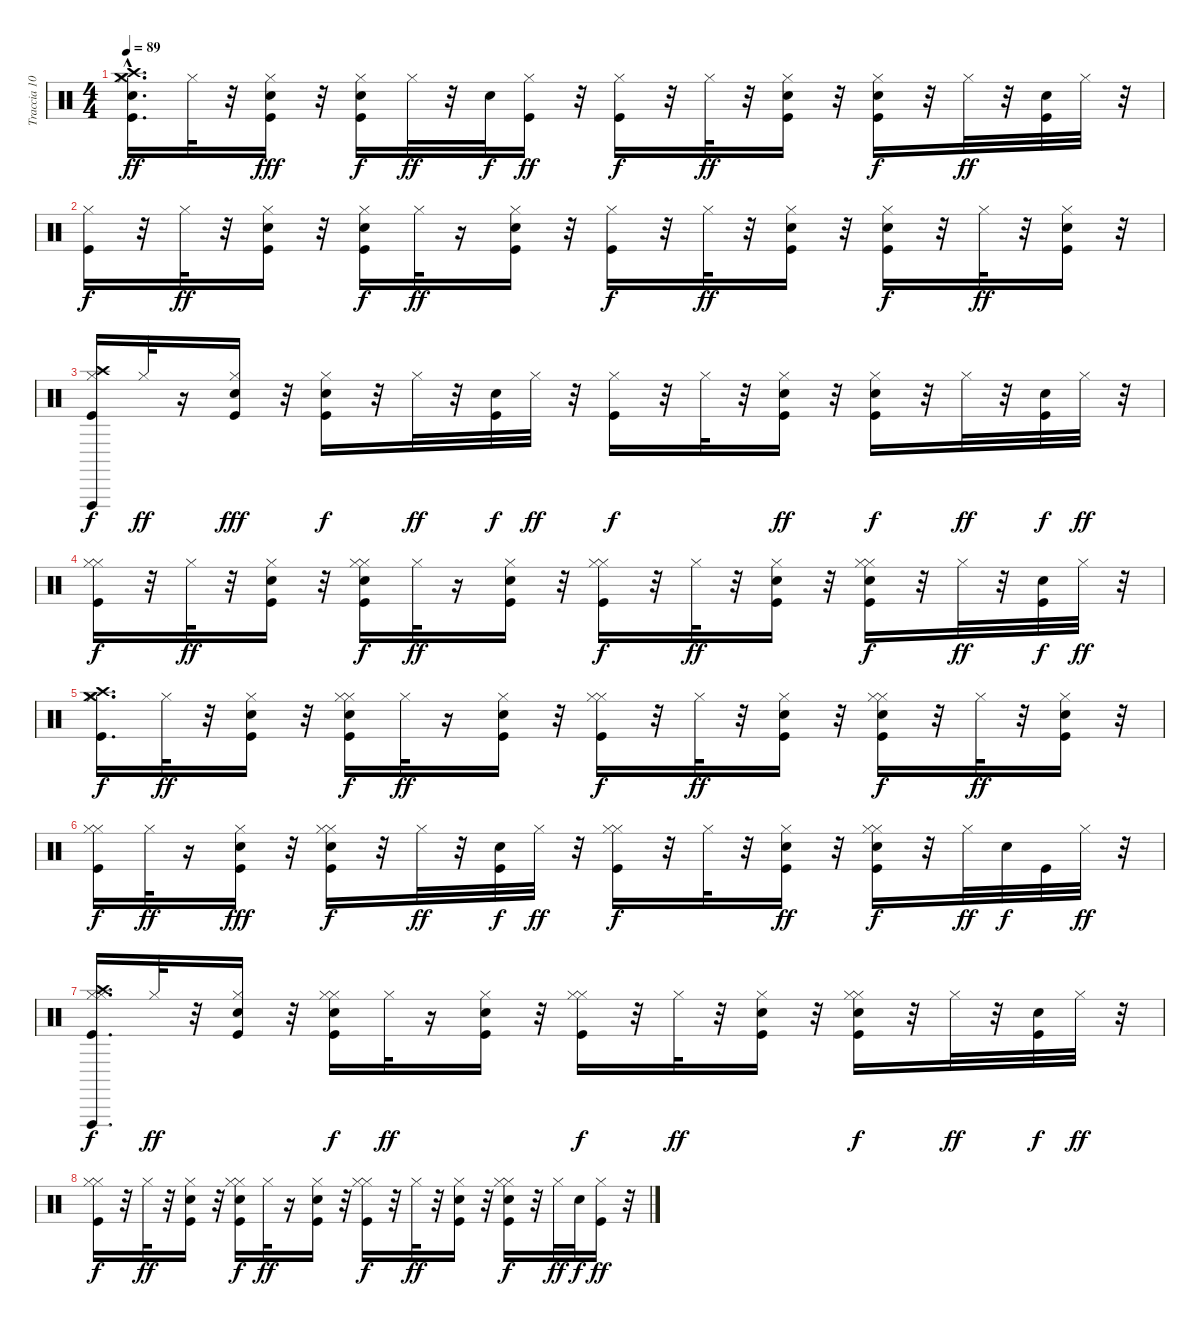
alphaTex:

\track ("Traccia 10" "Traccia 10") {instrument percussion}
\staff {score}
\articulation defaults
\ts (4 4)
\tempo 89
\clef neutral
\ks c
("Kick (hit)" "Crash medium (hit)" "Crash high (hit)" "Hi-Hat (closed)" "Snare (hit)"{hac}).16{d dy ff} "Hi-Hat (closed)".32 r.32 ("Kick (hit)" "Hi-Hat (closed)" "Snare (hit)").16{dy fff} r.32 ("Kick (hit)" "Electric Snare (hit)" "Hi-Hat (closed)").16{dy f} "Hi-Hat (closed)".32{dy ff} r.32 "Snare (hit)".32{dy f} ("Kick (hit)" "Hi-Hat (closed)").16{dy ff} r.32 ("Kick (hit)" "Hi-Hat (closed)").16{dy f} r.32 "Hi-Hat (closed)".32{dy ff} r.32 ("Kick (hit)" "Snare (hit)" "Hi-Hat (closed)").16 r.32 ("Kick (hit)" "Electric Snare (hit)" "Hi-Hat (closed)").16{dy f} r.32 "Hi-Hat (closed)".32{dy ff} r.32 ("Kick (hit)" "Snare (hit)").32 "Hi-Hat (closed)".32 r.32 |
("Kick (hit)" "Hi-Hat (closed)").16{dy f} r.32 "Hi-Hat (closed)".32{dy ff} r.32 ("Kick (hit)" "Snare (hit)" "Hi-Hat (closed)").16 r.32 ("Kick (hit)" "Electric Snare (hit)" "Hi-Hat (closed)").16{dy f} "Hi-Hat (closed)".32{dy ff} r.16 ("Kick (hit)" "Hi-Hat (closed)" "Snare (hit)").16 r.32 ("Kick (hit)" "Hi-Hat (closed)").16{dy f} r.32 "Hi-Hat (closed)".32{dy ff} r.32 ("Snare (hit)" "Kick (hit)" "Hi-Hat (closed)").16 r.32 ("Kick (hit)" "Electric Snare (hit)" "Hi-Hat (closed)").16{dy f} r.32 "Hi-Hat (closed)".32{dy ff} r.32 ("Kick (hit)" "Snare (hit)" "Hi-Hat (closed)").16 r.32 |
("Kick (hit)" "Hi-Hat (closed)" "Crash high (hit)" "Vibraslap (hit)").16{dy f} "Hi-Hat (closed)".32{dy ff} r.16 ("Kick (hit)" "Snare (hit)" "Hi-Hat (closed)").16{dy fff} r.32 ("Kick (hit)" "Electric Snare (hit)" "Hi-Hat (closed)").16{dy f} r.32 "Hi-Hat (closed)".32{dy ff} r.32 ("Kick (hit)" "Snare (hit)").32{dy f} "Hi-Hat (closed)".32{dy ff} r.32 ("Kick (hit)" "Hi-Hat (closed)").16{dy f} r.32 "Hi-Hat (closed)".32 r.32 ("Kick (hit)" "Snare (hit)" "Hi-Hat (closed)").16{dy ff} r.32 ("Kick (hit)" "Electric Snare (hit)" "Hi-Hat (closed)").16{dy f} r.32 "Hi-Hat (closed)".32{dy ff} r.32 ("Kick (hit)" "Snare (hit)").32{dy f} "Hi-Hat (closed)".32{dy ff} r.32 |
("Kick (hit)" "Hi-Hat (closed)" "Hi-Hat (closed)").16{dy f} r.32 "Hi-Hat (closed)".32{dy ff} r.32 ("Snare (hit)" "Kick (hit)" "Hi-Hat (closed)").16 r.32 ("Kick (hit)" "Electric Snare (hit)" "Hi-Hat (closed)" "Hi-Hat (closed)").16{dy f} "Hi-Hat (closed)".32{dy ff} r.16 ("Snare (hit)" "Kick (hit)" "Hi-Hat (closed)").16 r.32 ("Kick (hit)" "Hi-Hat (closed)" "Hi-Hat (closed)").16{dy f} r.32 "Hi-Hat (closed)".32{dy ff} r.32 ("Snare (hit)" "Kick (hit)" "Hi-Hat (closed)").16 r.32 ("Kick (hit)" "Electric Snare (hit)" "Hi-Hat (closed)" "Hi-Hat (closed)").16{dy f} r.32 "Hi-Hat (closed)".32{dy ff} r.32 ("Kick (hit)" "Snare (hit)").32{dy f} "Hi-Hat (closed)".32{dy ff} r.32 |
("Kick (hit)" "Crash high (hit)" "Crash medium (hit)" "Hi-Hat (closed)" "Hi-Hat (closed)").16{d dy f} "Hi-Hat (closed)".32{dy ff} r.32 ("Kick (hit)" "Snare (hit)" "Hi-Hat (closed)").16 r.32 ("Kick (hit)" "Electric Snare (hit)" "Hi-Hat (closed)" "Hi-Hat (closed)").16{dy f} "Hi-Hat (closed)".32{dy ff} r.16 ("Kick (hit)" "Hi-Hat (closed)" "Snare (hit)").16 r.32 ("Kick (hit)" "Hi-Hat (closed)" "Hi-Hat (closed)").16{dy f} r.32 "Hi-Hat (closed)".32{dy ff} r.32 ("Kick (hit)" "Snare (hit)" "Hi-Hat (closed)").16 r.32 ("Kick (hit)" "Electric Snare (hit)" "Hi-Hat (closed)" "Hi-Hat (closed)").16{dy f} r.32 "Hi-Hat (closed)".32{dy ff} r.32 ("Kick (hit)" "Snare (hit)" "Hi-Hat (closed)").16 r.32 |
("Kick (hit)" "Hi-Hat (closed)" "Hi-Hat (closed)").16{dy f} "Hi-Hat (closed)".32{dy ff} r.16 ("Snare (hit)" "Kick (hit)" "Hi-Hat (closed)").16{dy fff} r.32 ("Kick (hit)" "Electric Snare (hit)" "Hi-Hat (closed)" "Hi-Hat (closed)").16{dy f} r.32 "Hi-Hat (closed)".32{dy ff} r.32 ("Kick (hit)" "Snare (hit)").32{dy f} "Hi-Hat (closed)".32{dy ff} r.32 ("Kick (hit)" "Hi-Hat (closed)" "Hi-Hat (closed)").16{dy f} r.32 "Hi-Hat (closed)".32 r.32 ("Snare (hit)" "Kick (hit)" "Hi-Hat (closed)").16{dy ff} r.32 ("Kick (hit)" "Electric Snare (hit)" "Hi-Hat (closed)" "Hi-Hat (closed)").16{dy f} r.32 "Hi-Hat (closed)".32{dy ff} "Snare (hit)".32{dy f} "Kick (hit)".32 "Hi-Hat (closed)".32{dy ff} r.32 |
("Kick (hit)" "Crash high (hit)" "Hi-Hat (closed)" "Hi-Hat (closed)" "Vibraslap (hit)").16{d dy f} "Hi-Hat (closed)".32{dy ff} r.32 ("Kick (hit)" "Snare (hit)" "Hi-Hat (closed)").16 r.32 ("Kick (hit)" "Electric Snare (hit)" "Hi-Hat (closed)" "Hi-Hat (closed)").16{dy f} "Hi-Hat (closed)".32{dy ff} r.16 ("Snare (hit)" "Kick (hit)" "Hi-Hat (closed)").16 r.32 ("Kick (hit)" "Hi-Hat (closed)" "Hi-Hat (closed)").16{dy f} r.32 "Hi-Hat (closed)".32{dy ff} r.32 ("Kick (hit)" "Snare (hit)" "Hi-Hat (closed)").16 r.32 ("Kick (hit)" "Electric Snare (hit)" "Hi-Hat (closed)" "Hi-Hat (closed)").16{dy f} r.32 "Hi-Hat (closed)".32{dy ff} r.32 ("Kick (hit)" "Snare (hit)").32{dy f} "Hi-Hat (closed)".32{dy ff} r.32 |
("Kick (hit)" "Hi-Hat (closed)" "Hi-Hat (closed)").16{dy f} r.32 "Hi-Hat (closed)".32{dy ff} r.32 ("Snare (hit)" "Kick (hit)" "Hi-Hat (closed)").16 r.32 ("Kick (hit)" "Electric Snare (hit)" "Hi-Hat (closed)" "Hi-Hat (closed)").16{dy f} "Hi-Hat (closed)".32{dy ff} r.16 ("Kick (hit)" "Snare (hit)" "Hi-Hat (closed)").16 r.32 ("Kick (hit)" "Hi-Hat (closed)" "Hi-Hat (closed)").16{dy f} r.32 "Hi-Hat (closed)".32{dy ff} r.32 ("Snare (hit)" "Kick (hit)" "Hi-Hat (closed)").16 r.32 ("Kick (hit)" "Electric Snare (hit)" "Hi-Hat (closed)" "Hi-Hat (closed)").16{dy f} r.32 "Hi-Hat (closed)".32{dy ff} "Snare (hit)".32{dy f} ("Kick (hit)" "Hi-Hat (closed)").16{dy ff} r.32
